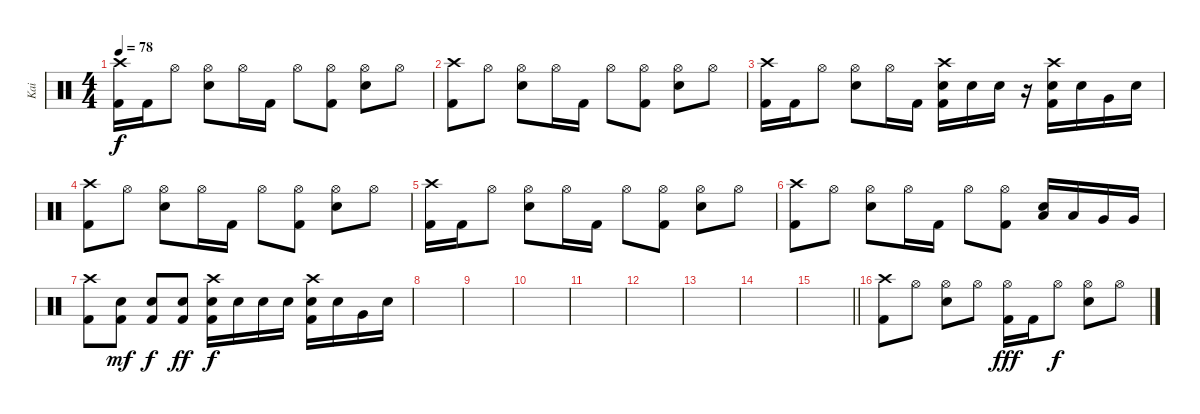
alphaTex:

\track ("Kai" "Kai") {instrument percussion}
\staff {score}
\articulation defaults
\ts (4 4)
\tempo 78
\clef neutral
\ks c
("Crash high (hit)" "Kick (hit) 2").16{dy f} "Kick (hit) 2".16 "Hi-Hat (open)".8 ("Hi-Hat (open)" "Electric Snare (hit)").8 "Hi-Hat (open)".16 "Kick (hit) 2".16 "Hi-Hat (open)".8 ("Hi-Hat (open)" "Kick (hit) 2").8 ("Hi-Hat (open)" "Electric Snare (hit)").8 "Hi-Hat (open)".8 |
("Crash high (hit)" "Kick (hit) 2").8 "Hi-Hat (open)".8 ("Hi-Hat (open)" "Electric Snare (hit)").8 "Hi-Hat (open)".16 "Kick (hit) 2".16 "Hi-Hat (open)".8 ("Hi-Hat (open)" "Kick (hit) 2").8 ("Hi-Hat (open)" "Electric Snare (hit)").8 "Hi-Hat (open)".8 |
("Crash high (hit)" "Kick (hit) 2").16 "Kick (hit) 2".16 "Hi-Hat (open)".8 ("Hi-Hat (open)" "Electric Snare (hit)").8 "Hi-Hat (open)".16 "Kick (hit) 2".16 ("Crash high (hit)" "Electric Snare (hit)" "Kick (hit) 2").16 "Electric Snare (hit)".16 "Electric Snare (hit)".16 r.16 ("Crash high (hit)" "Electric Snare (hit)" "Kick (hit) 2").16 "Electric Snare (hit)".16 "Very Low Tom (hit)".16 "Electric Snare (hit)".16 |
("Crash high (hit)" "Kick (hit) 2").8 "Hi-Hat (open)".8 ("Hi-Hat (open)" "Electric Snare (hit)").8 "Hi-Hat (open)".16 "Kick (hit) 2".16 "Hi-Hat (open)".8 ("Hi-Hat (open)" "Kick (hit) 2").8 ("Hi-Hat (open)" "Electric Snare (hit)").8 "Hi-Hat (open)".8 |
("Crash high (hit)" "Kick (hit) 2").16 "Kick (hit) 2".16 "Hi-Hat (open)".8 ("Hi-Hat (open)" "Electric Snare (hit)").8 "Hi-Hat (open)".16 "Kick (hit) 2".16 "Hi-Hat (open)".8 ("Hi-Hat (open)" "Kick (hit) 2").8 ("Hi-Hat (open)" "Electric Snare (hit)").8 "Hi-Hat (open)".8 |
("Crash high (hit)" "Kick (hit) 2").8 "Hi-Hat (open)".8 ("Hi-Hat (open)" "Electric Snare (hit)").8 "Hi-Hat (open)".16 "Kick (hit) 2".16 "Hi-Hat (open)".8 ("Hi-Hat (open)" "Kick (hit) 2").8 ("Low Tom (hit)" "Electric Snare (hit)").16 "Low Tom (hit)".16 "Very Low Tom (hit)".16 "Very Low Tom (hit)".16 |
("Crash high (hit)" "Kick (hit) 2").8 ("Electric Snare (hit)" "Kick (hit) 2").8{dy mf} ("Electric Snare (hit)" "Kick (hit) 2").8{dy f} ("Electric Snare (hit)" "Kick (hit) 2").8{dy ff} ("Crash high (hit)" "Electric Snare (hit)" "Kick (hit) 2").16{dy f} "Electric Snare (hit)".16 "Electric Snare (hit)".16 "Electric Snare (hit)".16 ("Crash high (hit)" "Electric Snare (hit)" "Kick (hit) 2").16 "Electric Snare (hit)".16 "Very Low Tom (hit)".16 "Electric Snare (hit)".16 |
|
|
|
|
|
|
|
\barLineRight lightlight
|
("Crash high (hit)" "Kick (hit) 2").8 "Hi-Hat (open)".8 ("Hi-Hat (open)" "Electric Snare (hit)").8 "Hi-Hat (open)".8 ("Hi-Hat (open)" "Kick (hit) 2").16{dy fff} "Kick (hit) 2".16 "Hi-Hat (open)".8{dy f} ("Hi-Hat (open)" "Electric Snare (hit)").8 "Hi-Hat (open)".8
